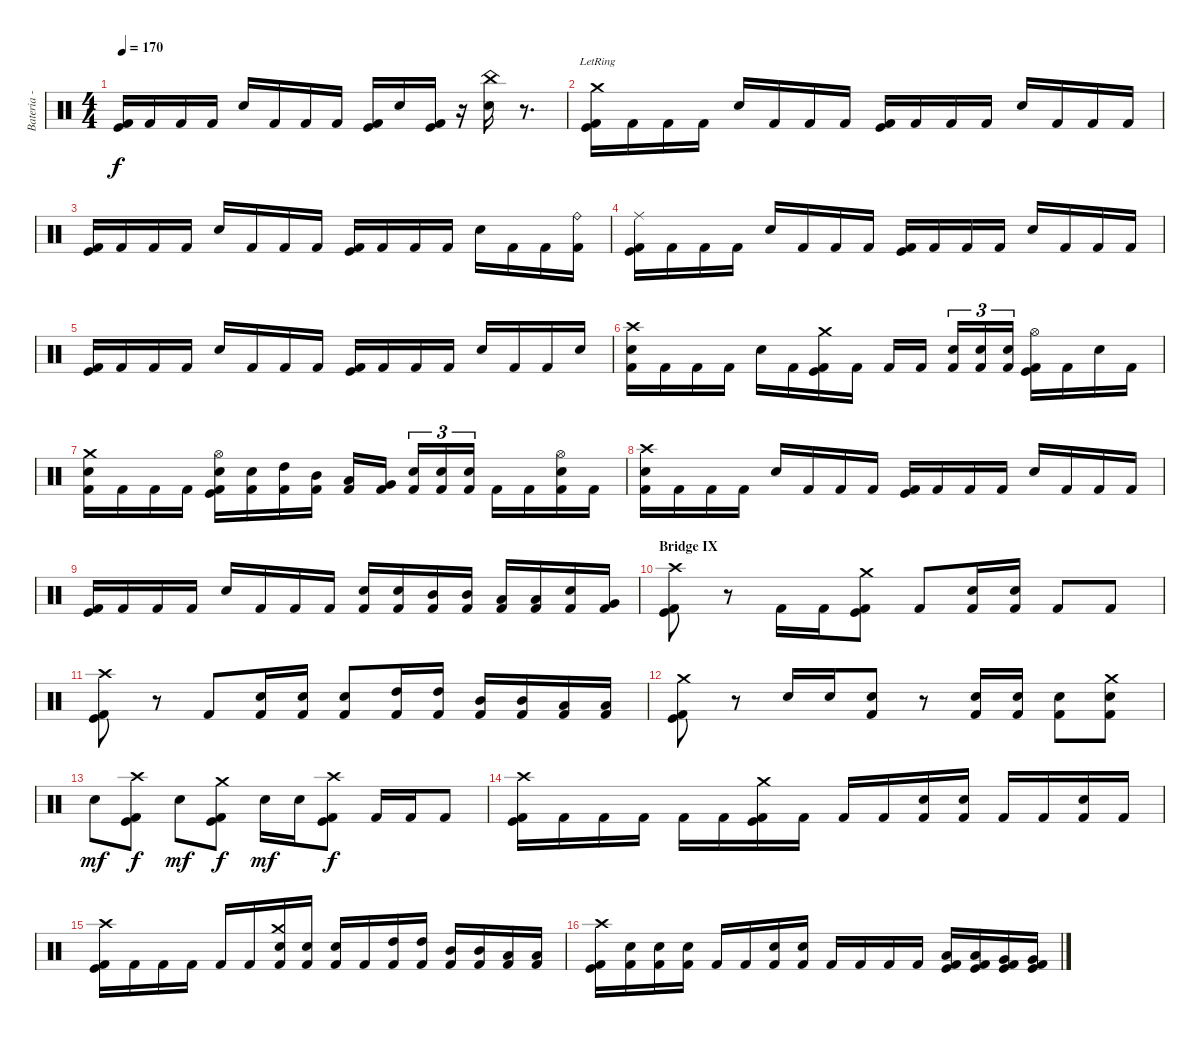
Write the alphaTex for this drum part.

\track ("Bateria - Drums" "Bateria - ") {instrument percussion}
\staff {score}
\articulation defaults
\ts (4 4)
\tempo 170
\clef neutral
\ks c
("Kick (hit)" "Kick (hit) 2").16{dy f} "Kick (hit) 2".16 "Kick (hit) 2".16 "Kick (hit) 2".16 "Snare (hit) 2".16 "Kick (hit) 2".16 "Kick (hit) 2".16 "Kick (hit) 2".16 ("Kick (hit)" "Kick (hit) 2").16 "Snare (hit) 2".16 ("Kick (hit)" "Kick (hit) 2").16 r.16 ("China (hit)" "Snare (hit) 2").16 r.8{d} |
("Crash medium (hit)"{lr} "Kick (hit)" "Kick (hit) 2").16 "Kick (hit) 2".16 "Kick (hit) 2".16 "Kick (hit) 2".16 "Snare (hit) 2".16 "Kick (hit) 2".16 "Kick (hit) 2".16 "Kick (hit) 2".16 ("Kick (hit)" "Kick (hit) 2").16 "Kick (hit) 2".16 "Kick (hit) 2".16 "Kick (hit) 2".16 "Snare (hit) 2".16 "Kick (hit) 2".16 "Kick (hit) 2".16 "Kick (hit) 2".16 |
("Kick (hit)" "Kick (hit) 2").16 "Kick (hit) 2".16 "Kick (hit) 2".16 "Kick (hit) 2".16 "Snare (hit) 2".16 "Kick (hit) 2".16 "Kick (hit) 2".16 "Kick (hit) 2".16 ("Kick (hit)" "Kick (hit) 2").16 "Kick (hit) 2".16 "Kick (hit) 2".16 "Kick (hit) 2".16 "Snare (hit) 2".16 "Kick (hit) 2".16 "Kick (hit) 2".16 ("Ride (bell)" "Kick (hit) 2").16 |
("Ride (middle)" "Kick (hit)" "Kick (hit) 2").16 "Kick (hit) 2".16 "Kick (hit) 2".16 "Kick (hit) 2".16 "Snare (hit) 2".16 "Kick (hit) 2".16 "Kick (hit) 2".16 "Kick (hit) 2".16 ("Kick (hit)" "Kick (hit) 2").16 "Kick (hit) 2".16 "Kick (hit) 2".16 "Kick (hit) 2".16 "Snare (hit) 2".16 "Kick (hit) 2".16 "Kick (hit) 2".16 "Kick (hit) 2".16 |
("Kick (hit)" "Kick (hit) 2").16 "Kick (hit) 2".16 "Kick (hit) 2".16 "Kick (hit) 2".16 "Snare (hit) 2".16 "Kick (hit) 2".16 "Kick (hit) 2".16 "Kick (hit) 2".16 ("Kick (hit)" "Kick (hit) 2").16 "Kick (hit) 2".16 "Kick (hit) 2".16 "Kick (hit) 2".16 "Snare (hit) 2".16 "Kick (hit) 2".16 "Kick (hit) 2".16 "Snare (hit) 2".16 |
("Crash high (hit)" "Snare (hit) 2" "Kick (hit) 2").16 "Kick (hit) 2".16 "Kick (hit) 2".16 "Kick (hit) 2".16 "Snare (hit) 2".16 "Kick (hit) 2".16 ("Crash medium (hit)" "Kick (hit)" "Kick (hit) 2").16 "Kick (hit) 2".16 "Kick (hit) 2".16 "Kick (hit) 2".16 ("Snare (hit) 2" "Kick (hit) 2").16{tu (3 2)} ("Snare (hit) 2" "Kick (hit) 2").16{tu (3 2)} ("Snare (hit) 2" "Kick (hit) 2").16{tu (3 2)} ("Hi-Hat (open)" "Kick (hit)" "Kick (hit) 2").16 "Kick (hit) 2".16 "Snare (hit) 2".16 "Kick (hit) 2".16 |
("Crash medium (hit)" "Snare (hit) 2" "Kick (hit) 2").16 "Kick (hit) 2".16 "Kick (hit) 2".16 "Kick (hit) 2".16 ("Hi-Hat (open)" "Snare (hit) 2" "Kick (hit)" "Kick (hit) 2").16 ("Snare (hit) 2" "Kick (hit) 2").16 ("High Tom (hit)" "Kick (hit) 2").16 ("Mid Tom (hit)" "Kick (hit) 2").16 ("Low Tom (hit)" "Kick (hit) 2").16 ("Very Low Tom (hit)" "Kick (hit) 2").16 ("Electric Snare (hit)" "Kick (hit) 2").16{tu (3 2)} ("Electric Snare (hit)" "Kick (hit) 2").16{tu (3 2)} ("Electric Snare (hit)" "Kick (hit) 2").16{tu (3 2)} "Kick (hit) 2".16 "Kick (hit) 2".16 ("Hi-Hat (open)" "Snare (hit) 2" "Kick (hit) 2").16 "Kick (hit) 2".16 |
("Crash high (hit)" "Snare (hit) 2" "Kick (hit) 2").16 "Kick (hit) 2".16 "Kick (hit) 2".16 "Kick (hit) 2".16 "Snare (hit) 2".16 "Kick (hit) 2".16 "Kick (hit) 2".16 "Kick (hit) 2".16 ("Kick (hit)" "Kick (hit) 2").16 "Kick (hit) 2".16 "Kick (hit) 2".16 "Kick (hit) 2".16 "Snare (hit) 2".16 "Kick (hit) 2".16 "Kick (hit) 2".16 "Kick (hit) 2".16 |
("Kick (hit)" "Kick (hit) 2").16 "Kick (hit) 2".16 "Kick (hit) 2".16 "Kick (hit) 2".16 "Snare (hit) 2".16 "Kick (hit) 2".16 "Kick (hit) 2".16 "Kick (hit) 2".16 ("Electric Snare (hit)" "Kick (hit) 2").16 ("Electric Snare (hit)" "Kick (hit) 2").16 ("Mid Tom (hit)" "Kick (hit) 2").16 ("Mid Tom (hit)" "Kick (hit) 2").16 ("Low Tom (hit)" "Kick (hit) 2").16 ("Low Tom (hit)" "Kick (hit) 2").16 ("Electric Snare (hit)" "Kick (hit) 2").16 ("Very Low Tom (hit)" "Kick (hit) 2").16 |
\section ("" "Bridge IX")
("Crash high (hit)" "Kick (hit)" "Kick (hit) 2").8 r.8 "Kick (hit) 2".16 "Kick (hit) 2".16 ("Crash medium (hit)" "Kick (hit)" "Kick (hit) 2").8 "Kick (hit) 2".8 ("Electric Snare (hit)" "Kick (hit) 2").16 ("Electric Snare (hit)" "Kick (hit) 2").16 "Kick (hit) 2".8 "Kick (hit) 2".8 |
("Crash high (hit)" "Kick (hit)" "Kick (hit) 2").8 r.8 "Kick (hit) 2".8 ("Electric Snare (hit)" "Kick (hit) 2").16 ("Electric Snare (hit)" "Kick (hit) 2").16 ("Electric Snare (hit)" "Kick (hit) 2").8 ("High Tom (hit)" "Kick (hit) 2").16 ("High Tom (hit)" "Kick (hit) 2").16 ("Mid Tom (hit)" "Kick (hit) 2").16 ("Mid Tom (hit)" "Kick (hit) 2").16 ("Low Tom (hit)" "Kick (hit) 2").16 ("Low Tom (hit)" "Kick (hit) 2").16 |
("Crash medium (hit)" "Kick (hit)" "Kick (hit) 2").8 r.8 "Electric Snare (hit)".16 "Electric Snare (hit)".16 ("Electric Snare (hit)" "Kick (hit) 2").8 r.8 ("Snare (hit) 2" "Kick (hit) 2").16 ("Snare (hit) 2" "Kick (hit) 2").16 ("Snare (hit) 2" "Kick (hit) 2").8 ("Crash medium (hit)" "Snare (hit) 2" "Kick (hit) 2").8 |
"Snare (hit) 2".8{dy mf} ("Crash high (hit)" "Kick (hit)" "Kick (hit) 2").8{dy f} "Snare (hit) 2".8{dy mf} ("Crash medium (hit)" "Kick (hit)" "Kick (hit) 2").8{dy f} "Snare (hit) 2".16{dy mf} "Snare (hit) 2".16 ("Crash high (hit)" "Kick (hit)" "Kick (hit) 2").8{dy f} "Kick (hit) 2".16 "Kick (hit) 2".16 "Kick (hit) 2".8 |
("Crash high (hit)" "Kick (hit)" "Kick (hit) 2").16 "Kick (hit) 2".16 "Kick (hit) 2".16 "Kick (hit) 2".16 "Kick (hit) 2".16 "Kick (hit) 2".16 ("Crash medium (hit)" "Kick (hit)" "Kick (hit) 2").16 "Kick (hit) 2".16 "Kick (hit) 2".16 "Kick (hit) 2".16 ("Electric Snare (hit)" "Kick (hit) 2").16 ("Electric Snare (hit)" "Kick (hit) 2").16 "Kick (hit) 2".16 "Kick (hit) 2".16 ("Electric Snare (hit)" "Kick (hit) 2").16 "Kick (hit) 2".16 |
("Crash high (hit)" "Kick (hit)" "Kick (hit) 2").16 "Kick (hit) 2".16 "Kick (hit) 2".16 "Kick (hit) 2".16 "Kick (hit) 2".16 "Kick (hit) 2".16 ("Crash medium (hit)" "Electric Snare (hit)" "Kick (hit) 2").16 ("Electric Snare (hit)" "Kick (hit) 2").16 ("Electric Snare (hit)" "Kick (hit) 2").16 "Kick (hit) 2".16 ("High Tom (hit)" "Kick (hit) 2").16 ("High Tom (hit)" "Kick (hit) 2").16 ("Mid Tom (hit)" "Kick (hit) 2").16 ("Mid Tom (hit)" "Kick (hit) 2").16 ("Low Tom (hit)" "Kick (hit) 2").16 ("Low Tom (hit)" "Kick (hit) 2").16 |
("Crash high (hit)" "Kick (hit)" "Kick (hit) 2").16 ("Snare (hit) 2" "Kick (hit) 2").16 ("Snare (hit) 2" "Kick (hit) 2").16 ("Snare (hit) 2" "Kick (hit) 2").16 "Kick (hit) 2".16 "Kick (hit) 2".16 ("Electric Snare (hit)" "Kick (hit) 2").16 ("Electric Snare (hit)" "Kick (hit) 2").16 "Kick (hit) 2".16 "Kick (hit) 2".16 "Kick (hit) 2".16 "Kick (hit) 2".16 ("Low Tom (hit)" "Kick (hit)" "Kick (hit) 2").16 ("Low Tom (hit)" "Kick (hit)" "Kick (hit) 2").16 ("Very Low Tom (hit)" "Kick (hit)" "Kick (hit) 2").16 ("Very Low Tom (hit)" "Kick (hit)" "Kick (hit) 2").16
